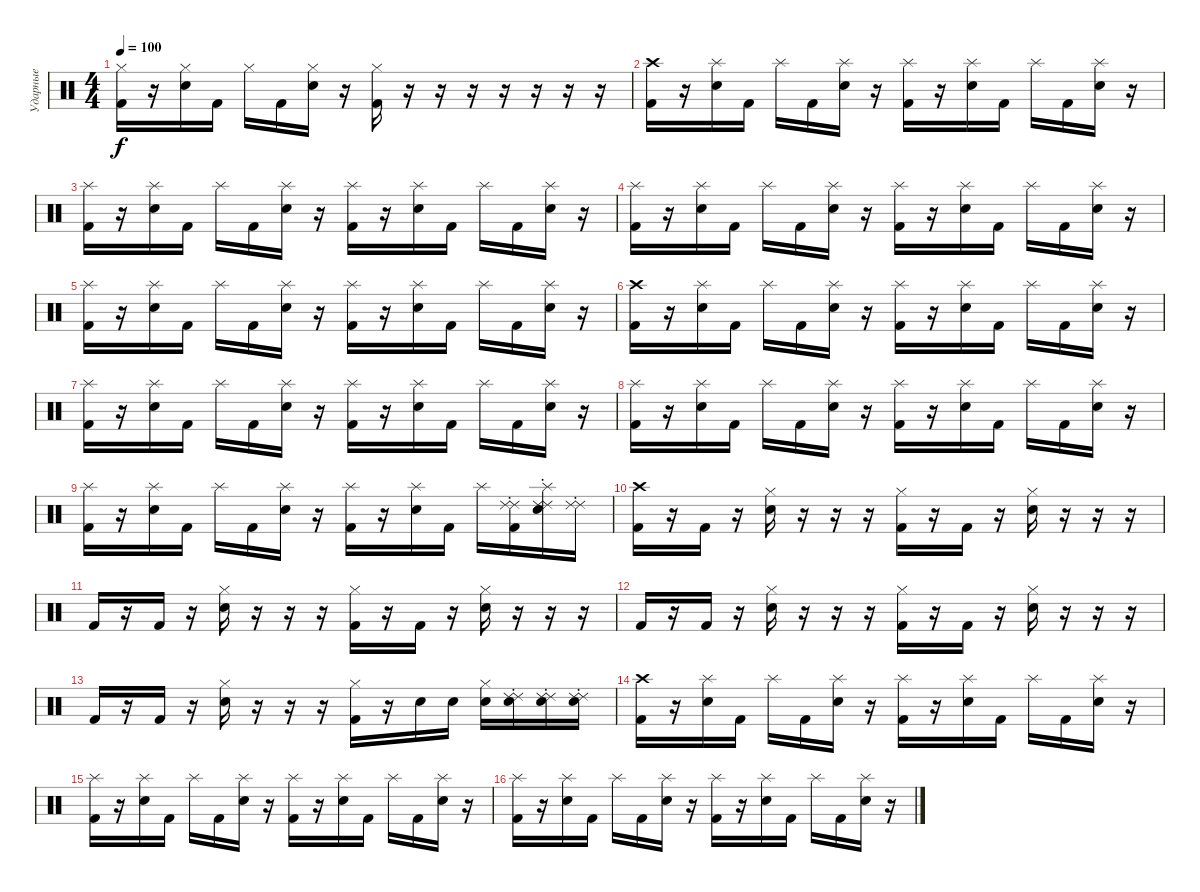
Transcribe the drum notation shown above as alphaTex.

\track ("Ударные" "Ударные") {instrument percussion}
\staff {score}
\articulation defaults
\ts (4 4)
\tempo 100
\clef neutral
\ks c
("Hi-Hat (closed)" "Kick (hit) 2").16{dy f} r.16 ("Hi-Hat (closed)" "Electric Snare (hit)").16 "Kick (hit) 2".16 "Hi-Hat (closed)".16 "Kick (hit) 2".16 ("Hi-Hat (closed)" "Electric Snare (hit)").16 r.16 ("Hi-Hat (closed)" "Kick (hit) 2").16 r.16 r.16 r.16 r.16 r.16 r.16 r.16 |
("Crash high (hit)" "Kick (hit) 2").16 r.16 ("Splash (hit)" "Electric Snare (hit)").16 "Kick (hit) 2".16 "Splash (hit)".16 "Kick (hit) 2".16 ("Splash (hit)" "Electric Snare (hit)").16 r.16 ("Splash (hit)" "Kick (hit) 2").16 r.16 ("Splash (hit)" "Electric Snare (hit)").16 "Kick (hit) 2".16 "Splash (hit)".16 "Kick (hit) 2".16 ("Splash (hit)" "Electric Snare (hit)").16 r.16 |
("Splash (hit)" "Kick (hit) 2").16 r.16 ("Splash (hit)" "Electric Snare (hit)").16 "Kick (hit) 2".16 "Splash (hit)".16 "Kick (hit) 2".16 ("Splash (hit)" "Electric Snare (hit)").16 r.16 ("Splash (hit)" "Kick (hit) 2").16 r.16 ("Splash (hit)" "Electric Snare (hit)").16 "Kick (hit) 2".16 "Splash (hit)".16 "Kick (hit) 2".16 ("Splash (hit)" "Electric Snare (hit)").16 r.16 |
("Splash (hit)" "Kick (hit) 2").16 r.16 ("Splash (hit)" "Electric Snare (hit)").16 "Kick (hit) 2".16 "Splash (hit)".16 "Kick (hit) 2".16 ("Splash (hit)" "Electric Snare (hit)").16 r.16 ("Splash (hit)" "Kick (hit) 2").16 r.16 ("Splash (hit)" "Electric Snare (hit)").16 "Kick (hit) 2".16 "Splash (hit)".16 "Kick (hit) 2".16 ("Splash (hit)" "Electric Snare (hit)").16 r.16 |
("Splash (hit)" "Kick (hit) 2").16 r.16 ("Splash (hit)" "Electric Snare (hit)").16 "Kick (hit) 2".16 "Splash (hit)".16 "Kick (hit) 2".16 ("Splash (hit)" "Electric Snare (hit)").16 r.16 ("Splash (hit)" "Kick (hit) 2").16 r.16 ("Splash (hit)" "Electric Snare (hit)").16 "Kick (hit) 2".16 "Splash (hit)".16 "Kick (hit) 2".16 ("Splash (hit)" "Electric Snare (hit)").16 r.16 |
("Crash high (hit)" "Kick (hit) 2").16 r.16 ("Splash (hit)" "Electric Snare (hit)").16 "Kick (hit) 2".16 "Splash (hit)".16 "Kick (hit) 2".16 ("Splash (hit)" "Electric Snare (hit)").16 r.16 ("Splash (hit)" "Kick (hit) 2").16 r.16 ("Splash (hit)" "Electric Snare (hit)").16 "Kick (hit) 2".16 "Splash (hit)".16 "Kick (hit) 2".16 ("Splash (hit)" "Electric Snare (hit)").16 r.16 |
("Splash (hit)" "Kick (hit) 2").16 r.16 ("Splash (hit)" "Electric Snare (hit)").16 "Kick (hit) 2".16 "Splash (hit)".16 "Kick (hit) 2".16 ("Splash (hit)" "Electric Snare (hit)").16 r.16 ("Splash (hit)" "Kick (hit) 2").16 r.16 ("Splash (hit)" "Electric Snare (hit)").16 "Kick (hit) 2".16 "Splash (hit)".16 "Kick (hit) 2".16 ("Splash (hit)" "Electric Snare (hit)").16 r.16 |
("Splash (hit)" "Kick (hit) 2").16 r.16 ("Splash (hit)" "Electric Snare (hit)").16 "Kick (hit) 2".16 "Splash (hit)".16 "Kick (hit) 2".16 ("Splash (hit)" "Electric Snare (hit)").16 r.16 ("Splash (hit)" "Kick (hit) 2").16 r.16 ("Splash (hit)" "Electric Snare (hit)").16 "Kick (hit) 2".16 "Splash (hit)".16 "Kick (hit) 2".16 ("Splash (hit)" "Electric Snare (hit)").16 r.16 |
("Splash (hit)" "Kick (hit) 2").16 r.16 ("Splash (hit)" "Electric Snare (hit)").16 "Kick (hit) 2".16 "Splash (hit)".16 "Kick (hit) 2".16 ("Splash (hit)" "Electric Snare (hit)").16 r.16 ("Splash (hit)" "Kick (hit) 2").16 r.16 ("Splash (hit)" "Electric Snare (hit)").16 "Kick (hit) 2".16 "Splash (hit)".16 ("Ride (choke) 2" "Ride (choke) 2" "Kick (hit) 2").16 ("Splash (hit)" "Ride (choke) 2" "Ride (choke) 2" "Electric Snare (hit)").16 ("Ride (choke) 2" "Ride (choke) 2").16 |
("Crash high (hit)" "Kick (hit) 2").16 r.16 "Kick (hit) 2".16 r.16 ("Hi-Hat (closed)" "Electric Snare (hit)").16 r.16 r.16 r.16 ("Hi-Hat (closed)" "Kick (hit) 2").16 r.16 "Kick (hit) 2".16 r.16 ("Hi-Hat (closed)" "Electric Snare (hit)").16 r.16 r.16 r.16 |
"Kick (hit) 2".16 r.16 "Kick (hit) 2".16 r.16 ("Hi-Hat (closed)" "Electric Snare (hit)").16 r.16 r.16 r.16 ("Hi-Hat (closed)" "Kick (hit) 2").16 r.16 "Kick (hit) 2".16 r.16 ("Hi-Hat (closed)" "Electric Snare (hit)").16 r.16 r.16 r.16 |
"Kick (hit) 2".16 r.16 "Kick (hit) 2".16 r.16 ("Hi-Hat (closed)" "Electric Snare (hit)").16 r.16 r.16 r.16 ("Hi-Hat (closed)" "Kick (hit) 2").16 r.16 "Kick (hit) 2".16 r.16 ("Hi-Hat (closed)" "Electric Snare (hit)").16 r.16 r.16 r.16 |
"Kick (hit) 2".16 r.16 "Kick (hit) 2".16 r.16 ("Hi-Hat (closed)" "Electric Snare (hit)").16 r.16 r.16 r.16 ("Hi-Hat (closed)" "Kick (hit) 2").16 r.16 "Electric Snare (hit)".16 "Electric Snare (hit)".16 ("Hi-Hat (closed)" "Electric Snare (hit)").16 ("Ride (choke) 2" "Ride (choke) 2" "Electric Snare (hit)").16 ("Ride (choke) 2" "Ride (choke) 2" "Electric Snare (hit)").16 ("Ride (choke) 2" "Ride (choke) 2" "Electric Snare (hit)").16 |
("Crash high (hit)" "Kick (hit) 2").16 r.16 ("Splash (hit)" "Electric Snare (hit)").16 "Kick (hit) 2".16 "Splash (hit)".16 "Kick (hit) 2".16 ("Splash (hit)" "Electric Snare (hit)").16 r.16 ("Splash (hit)" "Kick (hit) 2").16 r.16 ("Splash (hit)" "Electric Snare (hit)").16 "Kick (hit) 2".16 "Splash (hit)".16 "Kick (hit) 2".16 ("Splash (hit)" "Electric Snare (hit)").16 r.16 |
("Splash (hit)" "Kick (hit) 2").16 r.16 ("Splash (hit)" "Electric Snare (hit)").16 "Kick (hit) 2".16 "Splash (hit)".16 "Kick (hit) 2".16 ("Splash (hit)" "Electric Snare (hit)").16 r.16 ("Splash (hit)" "Kick (hit) 2").16 r.16 ("Splash (hit)" "Electric Snare (hit)").16 "Kick (hit) 2".16 "Splash (hit)".16 "Kick (hit) 2".16 ("Splash (hit)" "Electric Snare (hit)").16 r.16 |
("Splash (hit)" "Kick (hit) 2").16 r.16 ("Splash (hit)" "Electric Snare (hit)").16 "Kick (hit) 2".16 "Splash (hit)".16 "Kick (hit) 2".16 ("Splash (hit)" "Electric Snare (hit)").16 r.16 ("Splash (hit)" "Kick (hit) 2").16 r.16 ("Splash (hit)" "Electric Snare (hit)").16 "Kick (hit) 2".16 "Splash (hit)".16 "Kick (hit) 2".16 ("Splash (hit)" "Electric Snare (hit)").16 r.16
